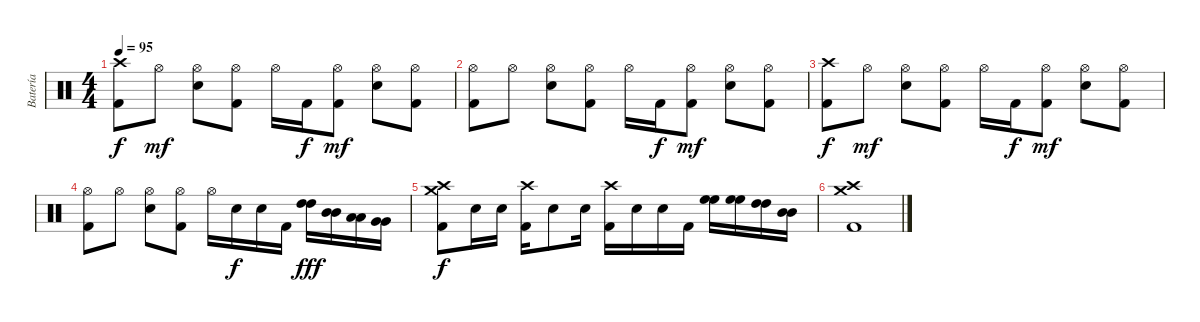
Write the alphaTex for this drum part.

\track ("Batería" "Batería") {instrument percussion}
\staff {score}
\articulation defaults
\ts (4 4)
\tempo 95
\clef neutral
\ks c
("Crash high (hit)" "Kick (hit) 2").8{dy f} "Hi-Hat (open)".8{dy mf} ("Hi-Hat (open)" "Snare (hit) 2").8 ("Hi-Hat (open)" "Kick (hit) 2").8 "Hi-Hat (open)".16 "Kick (hit) 2".16{dy f} ("Hi-Hat (open)" "Kick (hit) 2").8{dy mf} ("Hi-Hat (open)" "Snare (hit) 2").8 ("Hi-Hat (open)" "Kick (hit) 2").8 |
("Hi-Hat (open)" "Kick (hit) 2").8 "Hi-Hat (open)".8 ("Hi-Hat (open)" "Snare (hit) 2").8 ("Hi-Hat (open)" "Kick (hit) 2").8 "Hi-Hat (open)".16 "Kick (hit) 2".16{dy f} ("Hi-Hat (open)" "Kick (hit) 2").8{dy mf} ("Hi-Hat (open)" "Snare (hit) 2").8 ("Hi-Hat (open)" "Kick (hit) 2").8 |
("Crash high (hit)" "Kick (hit) 2").8{dy f} "Hi-Hat (open)".8{dy mf} ("Hi-Hat (open)" "Snare (hit) 2").8 ("Hi-Hat (open)" "Kick (hit) 2").8 "Hi-Hat (open)".16 "Kick (hit) 2".16{dy f} ("Hi-Hat (open)" "Kick (hit) 2").8{dy mf} ("Hi-Hat (open)" "Snare (hit) 2").8 ("Hi-Hat (open)" "Kick (hit) 2").8 |
("Hi-Hat (open)" "Kick (hit) 2").8 "Hi-Hat (open)".8 ("Hi-Hat (open)" "Snare (hit) 2").8 ("Hi-Hat (open)" "Kick (hit) 2").8 "Hi-Hat (open)".16 "Snare (hit) 2".16{dy f} "Snare (hit) 2".16 "Kick (hit) 2".16 ("High Tom (hit)" "High Tom (hit)").16{dy fff} ("Mid Tom (hit)" "Mid Tom (hit)").16 ("Low Tom (hit)" "Low Tom (hit)").16 ("Very Low Tom (hit)" "Very Low Tom (hit)").16 |
("Crash high (hit)" "Crash medium (hit)" "Kick (hit) 2").8{dy f} "Snare (hit) 2".16 "Snare (hit) 2".16 ("Crash high (hit)" "Kick (hit) 2").16 "Snare (hit) 2".8 "Snare (hit) 2".16 ("Crash high (hit)" "Kick (hit) 2").16 "Snare (hit) 2".16 "Snare (hit) 2".16 "Kick (hit) 2".16 ("High Floor Tom (hit)" "High Floor Tom (hit)").16 ("High Floor Tom (hit)" "High Floor Tom (hit)").16 ("High Tom (hit)" "High Tom (hit)").16 ("Mid Tom (hit)" "Mid Tom (hit)").16 |
("Crash high (hit)" "Crash medium (hit)" "Kick (hit) 2").1
